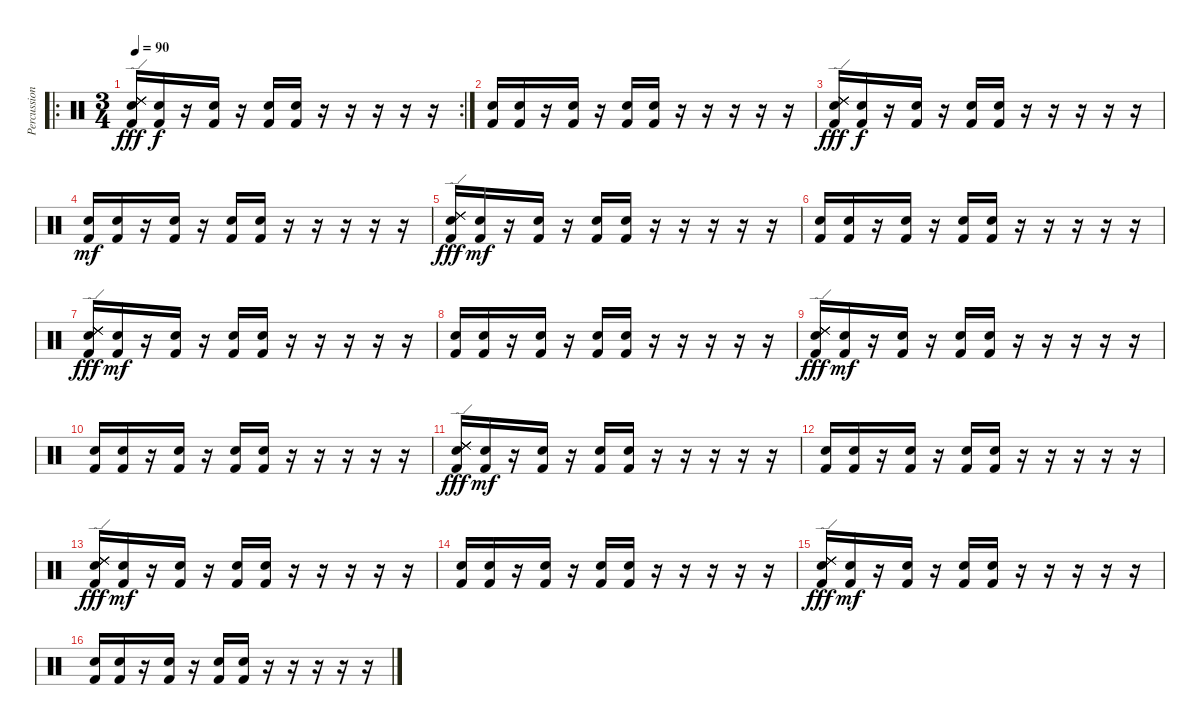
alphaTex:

\track ("Percussioni" "Percussion") {instrument percussion}
\staff {score}
\articulation defaults
\ro
\rc 2
\ts (3 4)
\tempo 90
\clef neutral
\ks c
("Kick (hit) 2" "Snare (hit) 2" "Ride (edge) 2" "Ride (edge) 2" "Ride (edge) 2" "Ride (edge) 2").16{dy fff} ("Kick (hit) 2" "Snare (hit) 2").16{dy f} r.16 ("Kick (hit) 2" "Snare (hit) 2").16 r.16 ("Kick (hit) 2" "Snare (hit) 2").16 ("Kick (hit) 2" "Snare (hit) 2").16 r.16 r.16 r.16 r.16 r.16 |
("Kick (hit) 2" "Snare (hit) 2").16 ("Kick (hit) 2" "Snare (hit) 2").16 r.16 ("Kick (hit) 2" "Snare (hit) 2").16 r.16 ("Kick (hit) 2" "Snare (hit) 2").16 ("Kick (hit) 2" "Snare (hit) 2").16 r.16 r.16 r.16 r.16 r.16 |
("Kick (hit) 2" "Snare (hit) 2" "Ride (edge) 2" "Ride (edge) 2" "Ride (edge) 2" "Ride (edge) 2").16{dy fff} ("Kick (hit) 2" "Snare (hit) 2").16{dy f} r.16 ("Kick (hit) 2" "Snare (hit) 2").16 r.16 ("Kick (hit) 2" "Snare (hit) 2").16 ("Kick (hit) 2" "Snare (hit) 2").16 r.16 r.16 r.16 r.16 r.16 |
("Kick (hit) 2" "Snare (hit) 2").16{dy mf} ("Kick (hit) 2" "Snare (hit) 2").16 r.16 ("Kick (hit) 2" "Snare (hit) 2").16 r.16 ("Kick (hit) 2" "Snare (hit) 2").16 ("Kick (hit) 2" "Snare (hit) 2").16 r.16 r.16 r.16 r.16 r.16 |
("Kick (hit) 2" "Snare (hit) 2" "Ride (edge) 2" "Ride (edge) 2" "Ride (edge) 2" "Ride (edge) 2").16{dy fff} ("Kick (hit) 2" "Snare (hit) 2").16{dy mf} r.16 ("Kick (hit) 2" "Snare (hit) 2").16 r.16 ("Kick (hit) 2" "Snare (hit) 2").16 ("Kick (hit) 2" "Snare (hit) 2").16 r.16 r.16 r.16 r.16 r.16 |
("Kick (hit) 2" "Snare (hit) 2").16 ("Kick (hit) 2" "Snare (hit) 2").16 r.16 ("Kick (hit) 2" "Snare (hit) 2").16 r.16 ("Kick (hit) 2" "Snare (hit) 2").16 ("Kick (hit) 2" "Snare (hit) 2").16 r.16 r.16 r.16 r.16 r.16 |
("Kick (hit) 2" "Snare (hit) 2" "Ride (edge) 2" "Ride (edge) 2" "Ride (edge) 2" "Ride (edge) 2").16{dy fff} ("Kick (hit) 2" "Snare (hit) 2").16{dy mf} r.16 ("Kick (hit) 2" "Snare (hit) 2").16 r.16 ("Kick (hit) 2" "Snare (hit) 2").16 ("Kick (hit) 2" "Snare (hit) 2").16 r.16 r.16 r.16 r.16 r.16 |
("Kick (hit) 2" "Snare (hit) 2").16 ("Kick (hit) 2" "Snare (hit) 2").16 r.16 ("Kick (hit) 2" "Snare (hit) 2").16 r.16 ("Kick (hit) 2" "Snare (hit) 2").16 ("Kick (hit) 2" "Snare (hit) 2").16 r.16 r.16 r.16 r.16 r.16 |
("Kick (hit) 2" "Snare (hit) 2" "Ride (edge) 2" "Ride (edge) 2" "Ride (edge) 2" "Ride (edge) 2").16{dy fff} ("Kick (hit) 2" "Snare (hit) 2").16{dy mf} r.16 ("Kick (hit) 2" "Snare (hit) 2").16 r.16 ("Kick (hit) 2" "Snare (hit) 2").16 ("Kick (hit) 2" "Snare (hit) 2").16 r.16 r.16 r.16 r.16 r.16 |
("Kick (hit) 2" "Snare (hit) 2").16 ("Kick (hit) 2" "Snare (hit) 2").16 r.16 ("Kick (hit) 2" "Snare (hit) 2").16 r.16 ("Kick (hit) 2" "Snare (hit) 2").16 ("Kick (hit) 2" "Snare (hit) 2").16 r.16 r.16 r.16 r.16 r.16 |
("Kick (hit) 2" "Snare (hit) 2" "Ride (edge) 2" "Ride (edge) 2" "Ride (edge) 2" "Ride (edge) 2").16{dy fff} ("Kick (hit) 2" "Snare (hit) 2").16{dy mf} r.16 ("Kick (hit) 2" "Snare (hit) 2").16 r.16 ("Kick (hit) 2" "Snare (hit) 2").16 ("Kick (hit) 2" "Snare (hit) 2").16 r.16 r.16 r.16 r.16 r.16 |
("Kick (hit) 2" "Snare (hit) 2").16 ("Kick (hit) 2" "Snare (hit) 2").16 r.16 ("Kick (hit) 2" "Snare (hit) 2").16 r.16 ("Kick (hit) 2" "Snare (hit) 2").16 ("Kick (hit) 2" "Snare (hit) 2").16 r.16 r.16 r.16 r.16 r.16 |
("Kick (hit) 2" "Snare (hit) 2" "Ride (edge) 2" "Ride (edge) 2" "Ride (edge) 2" "Ride (edge) 2").16{dy fff} ("Kick (hit) 2" "Snare (hit) 2").16{dy mf} r.16 ("Kick (hit) 2" "Snare (hit) 2").16 r.16 ("Kick (hit) 2" "Snare (hit) 2").16 ("Kick (hit) 2" "Snare (hit) 2").16 r.16 r.16 r.16 r.16 r.16 |
("Kick (hit) 2" "Snare (hit) 2").16 ("Kick (hit) 2" "Snare (hit) 2").16 r.16 ("Kick (hit) 2" "Snare (hit) 2").16 r.16 ("Kick (hit) 2" "Snare (hit) 2").16 ("Kick (hit) 2" "Snare (hit) 2").16 r.16 r.16 r.16 r.16 r.16 |
("Kick (hit) 2" "Snare (hit) 2" "Ride (edge) 2" "Ride (edge) 2" "Ride (edge) 2" "Ride (edge) 2").16{dy fff} ("Kick (hit) 2" "Snare (hit) 2").16{dy mf} r.16 ("Kick (hit) 2" "Snare (hit) 2").16 r.16 ("Kick (hit) 2" "Snare (hit) 2").16 ("Kick (hit) 2" "Snare (hit) 2").16 r.16 r.16 r.16 r.16 r.16 |
("Kick (hit) 2" "Snare (hit) 2").16 ("Kick (hit) 2" "Snare (hit) 2").16 r.16 ("Kick (hit) 2" "Snare (hit) 2").16 r.16 ("Kick (hit) 2" "Snare (hit) 2").16 ("Kick (hit) 2" "Snare (hit) 2").16 r.16 r.16 r.16 r.16 r.16
